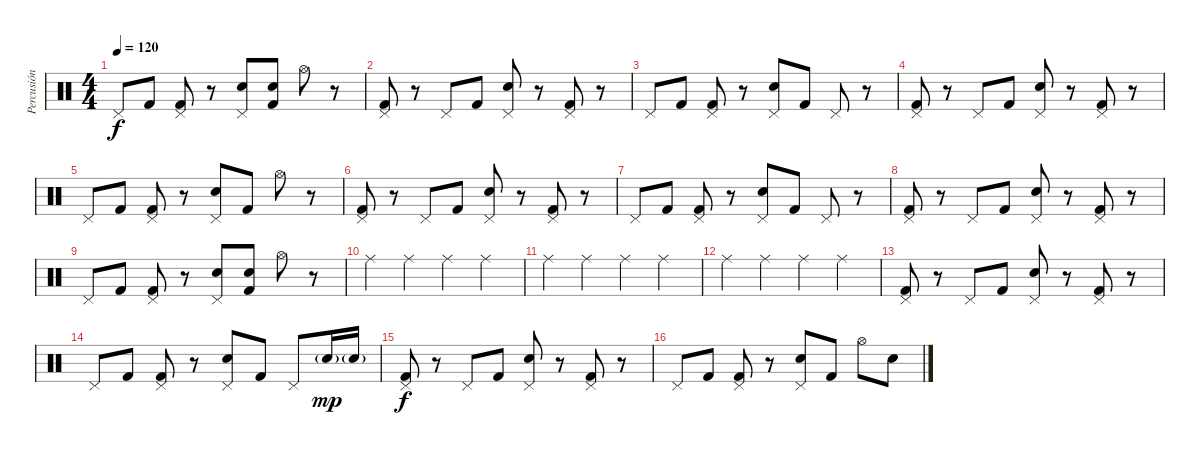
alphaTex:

\track ("Percusión" "Percusión") {instrument percussion}
\staff {score}
\articulation defaults
\ts (4 4)
\tempo 120
\clef neutral
\ks c "Pedal Hi-Hat (hit)".8{dy f} "Kick (hit) 2".8
("Pedal Hi-Hat (hit)" "Kick (hit) 2").8 r.8 ("Pedal Hi-Hat (hit)" "Electric Snare (hit)").8 ("Electric Snare (hit)" "Kick (hit) 2").8 "Hi-Hat (open)".8 r.8 |
("Pedal Hi-Hat (hit)" "Kick (hit) 2").8 r.8 "Pedal Hi-Hat (hit)".8 "Kick (hit) 2".8 ("Pedal Hi-Hat (hit)" "Electric Snare (hit)").8 r.8 ("Pedal Hi-Hat (hit)" "Kick (hit) 2").8 r.8 |
"Pedal Hi-Hat (hit)".8 "Kick (hit) 2".8 ("Pedal Hi-Hat (hit)" "Kick (hit) 2").8 r.8 ("Pedal Hi-Hat (hit)" "Electric Snare (hit)").8 "Kick (hit) 2".8 "Pedal Hi-Hat (hit)".8 r.8 |
("Pedal Hi-Hat (hit)" "Kick (hit) 2").8 r.8 "Pedal Hi-Hat (hit)".8 "Kick (hit) 2".8 ("Pedal Hi-Hat (hit)" "Electric Snare (hit)").8 r.8 ("Pedal Hi-Hat (hit)" "Kick (hit) 2").8 r.8 |
"Pedal Hi-Hat (hit)".8 "Kick (hit) 2".8 ("Pedal Hi-Hat (hit)" "Kick (hit) 2").8 r.8 ("Pedal Hi-Hat (hit)" "Electric Snare (hit)").8 "Kick (hit) 2".8 "Hi-Hat (open)".8 r.8 |
("Pedal Hi-Hat (hit)" "Kick (hit) 2").8 r.8 "Pedal Hi-Hat (hit)".8 "Kick (hit) 2".8 ("Pedal Hi-Hat (hit)" "Electric Snare (hit)").8 r.8 ("Pedal Hi-Hat (hit)" "Kick (hit) 2").8 r.8 |
"Pedal Hi-Hat (hit)".8 "Kick (hit) 2".8 ("Pedal Hi-Hat (hit)" "Kick (hit) 2").8 r.8 ("Pedal Hi-Hat (hit)" "Electric Snare (hit)").8 "Kick (hit) 2".8 "Pedal Hi-Hat (hit)".8 r.8 |
("Pedal Hi-Hat (hit)" "Kick (hit) 2").8 r.8 "Pedal Hi-Hat (hit)".8 "Kick (hit) 2".8 ("Pedal Hi-Hat (hit)" "Electric Snare (hit)").8 r.8 ("Pedal Hi-Hat (hit)" "Kick (hit) 2").8 r.8 |
"Pedal Hi-Hat (hit)".8 "Kick (hit) 2".8 ("Pedal Hi-Hat (hit)" "Kick (hit) 2").8 r.8 ("Pedal Hi-Hat (hit)" "Electric Snare (hit)").8 ("Electric Snare (hit)" "Kick (hit) 2").8 "Hi-Hat (open)".8 r.8 |
"Ride (middle)".4 "Ride (middle)".4 "Ride (middle)".4 "Ride (middle)".4 |
"Ride (middle)".4 "Ride (middle)".4 "Ride (middle)".4 "Ride (middle)".4 |
"Ride (middle)".4 "Ride (middle)".4 "Ride (middle)".4 "Ride (middle)".4 |
("Pedal Hi-Hat (hit)" "Kick (hit) 2").8 r.8 "Pedal Hi-Hat (hit)".8 "Kick (hit) 2".8 ("Pedal Hi-Hat (hit)" "Electric Snare (hit)").8 r.8 ("Pedal Hi-Hat (hit)" "Kick (hit) 2").8 r.8 |
"Pedal Hi-Hat (hit)".8 "Kick (hit) 2".8 ("Pedal Hi-Hat (hit)" "Kick (hit) 2").8 r.8 ("Pedal Hi-Hat (hit)" "Electric Snare (hit)").8 "Kick (hit) 2".8 "Pedal Hi-Hat (hit)".8 "Electric Snare (hit)"{g}.16{dy mp} "Electric Snare (hit)"{g}.16 |
("Pedal Hi-Hat (hit)" "Kick (hit) 2").8{dy f} r.8 "Pedal Hi-Hat (hit)".8 "Kick (hit) 2".8 ("Pedal Hi-Hat (hit)" "Electric Snare (hit)").8 r.8 ("Pedal Hi-Hat (hit)" "Kick (hit) 2").8 r.8 |
"Pedal Hi-Hat (hit)".8 "Kick (hit) 2".8 ("Pedal Hi-Hat (hit)" "Kick (hit) 2").8 r.8 ("Pedal Hi-Hat (hit)" "Electric Snare (hit)").8 "Kick (hit) 2".8 "Hi-Hat (open)".8 "Electric Snare (hit)".8
